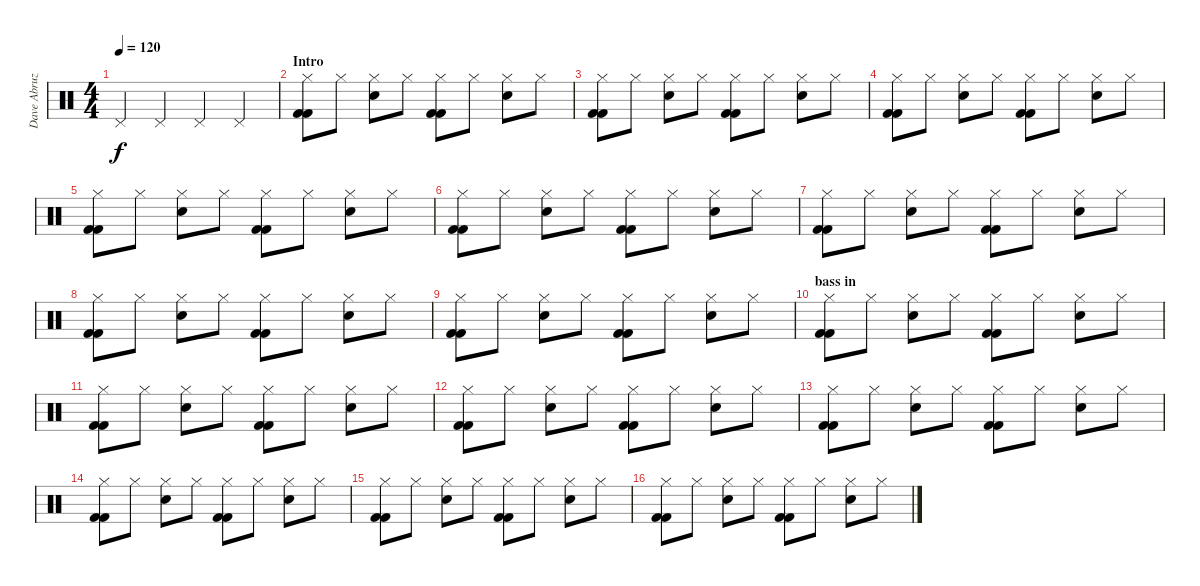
\track ("Dave Abruzzese" "Dave Abruz") {instrument percussion}
\staff {score}
\articulation defaults
\ts (4 4)
\tempo 120
\clef neutral
\ks c "Pedal Hi-Hat (hit)".4{dy f} "Pedal Hi-Hat (hit)".4 "Pedal Hi-Hat (hit)".4 "Pedal Hi-Hat (hit)".4
|
\section ("" "Intro")
("Hi-Hat (closed)" "Kick (hit) 2" "Kick (hit) 2").8 "Hi-Hat (closed)".8 ("Hi-Hat (closed)" "Electric Snare (hit)").8 "Hi-Hat (closed)".8 ("Hi-Hat (closed)" "Kick (hit) 2" "Kick (hit) 2").8 "Hi-Hat (closed)".8 ("Hi-Hat (closed)" "Electric Snare (hit)").8 "Hi-Hat (closed)".8 |
("Hi-Hat (closed)" "Kick (hit) 2" "Kick (hit) 2").8 "Hi-Hat (closed)".8 ("Hi-Hat (closed)" "Electric Snare (hit)").8 "Hi-Hat (closed)".8 ("Hi-Hat (closed)" "Kick (hit) 2" "Kick (hit) 2").8 "Hi-Hat (closed)".8 ("Hi-Hat (closed)" "Electric Snare (hit)").8 "Hi-Hat (closed)".8 |
("Hi-Hat (closed)" "Kick (hit) 2" "Kick (hit) 2").8 "Hi-Hat (closed)".8 ("Hi-Hat (closed)" "Electric Snare (hit)").8 "Hi-Hat (closed)".8 ("Hi-Hat (closed)" "Kick (hit) 2" "Kick (hit) 2").8 "Hi-Hat (closed)".8 ("Hi-Hat (closed)" "Electric Snare (hit)").8 "Hi-Hat (closed)".8 |
("Hi-Hat (closed)" "Kick (hit) 2" "Kick (hit) 2").8 "Hi-Hat (closed)".8 ("Hi-Hat (closed)" "Electric Snare (hit)").8 "Hi-Hat (closed)".8 ("Hi-Hat (closed)" "Kick (hit) 2" "Kick (hit) 2").8 "Hi-Hat (closed)".8 ("Hi-Hat (closed)" "Electric Snare (hit)").8 "Hi-Hat (closed)".8 |
("Hi-Hat (closed)" "Kick (hit) 2" "Kick (hit) 2").8 "Hi-Hat (closed)".8 ("Hi-Hat (closed)" "Electric Snare (hit)").8 "Hi-Hat (closed)".8 ("Hi-Hat (closed)" "Kick (hit) 2" "Kick (hit) 2").8 "Hi-Hat (closed)".8 ("Hi-Hat (closed)" "Electric Snare (hit)").8 "Hi-Hat (closed)".8 |
("Hi-Hat (closed)" "Kick (hit) 2" "Kick (hit) 2").8 "Hi-Hat (closed)".8 ("Hi-Hat (closed)" "Electric Snare (hit)").8 "Hi-Hat (closed)".8 ("Hi-Hat (closed)" "Kick (hit) 2" "Kick (hit) 2").8 "Hi-Hat (closed)".8 ("Hi-Hat (closed)" "Electric Snare (hit)").8 "Hi-Hat (closed)".8 |
("Hi-Hat (closed)" "Kick (hit) 2" "Kick (hit) 2").8 "Hi-Hat (closed)".8 ("Hi-Hat (closed)" "Electric Snare (hit)").8 "Hi-Hat (closed)".8 ("Hi-Hat (closed)" "Kick (hit) 2" "Kick (hit) 2").8 "Hi-Hat (closed)".8 ("Hi-Hat (closed)" "Electric Snare (hit)").8 "Hi-Hat (closed)".8 |
("Hi-Hat (closed)" "Kick (hit) 2" "Kick (hit) 2").8 "Hi-Hat (closed)".8 ("Hi-Hat (closed)" "Electric Snare (hit)").8 "Hi-Hat (closed)".8 ("Hi-Hat (closed)" "Kick (hit) 2" "Kick (hit) 2").8 "Hi-Hat (closed)".8 ("Hi-Hat (closed)" "Electric Snare (hit)").8 "Hi-Hat (closed)".8 |
\section ("" "bass in")
("Hi-Hat (closed)" "Kick (hit) 2" "Kick (hit) 2").8 "Hi-Hat (closed)".8 ("Hi-Hat (closed)" "Electric Snare (hit)").8 "Hi-Hat (closed)".8 ("Hi-Hat (closed)" "Kick (hit) 2" "Kick (hit) 2").8 "Hi-Hat (closed)".8 ("Hi-Hat (closed)" "Electric Snare (hit)").8 "Hi-Hat (closed)".8 |
("Hi-Hat (closed)" "Kick (hit) 2" "Kick (hit) 2").8 "Hi-Hat (closed)".8 ("Hi-Hat (closed)" "Electric Snare (hit)").8 "Hi-Hat (closed)".8 ("Hi-Hat (closed)" "Kick (hit) 2" "Kick (hit) 2").8 "Hi-Hat (closed)".8 ("Hi-Hat (closed)" "Electric Snare (hit)").8 "Hi-Hat (closed)".8 |
("Hi-Hat (closed)" "Kick (hit) 2" "Kick (hit) 2").8 "Hi-Hat (closed)".8 ("Hi-Hat (closed)" "Electric Snare (hit)").8 "Hi-Hat (closed)".8 ("Hi-Hat (closed)" "Kick (hit) 2" "Kick (hit) 2").8 "Hi-Hat (closed)".8 ("Hi-Hat (closed)" "Electric Snare (hit)").8 "Hi-Hat (closed)".8 |
("Hi-Hat (closed)" "Kick (hit) 2" "Kick (hit) 2").8 "Hi-Hat (closed)".8 ("Hi-Hat (closed)" "Electric Snare (hit)").8 "Hi-Hat (closed)".8 ("Hi-Hat (closed)" "Kick (hit) 2" "Kick (hit) 2").8 "Hi-Hat (closed)".8 ("Hi-Hat (closed)" "Electric Snare (hit)").8 "Hi-Hat (closed)".8 |
("Hi-Hat (closed)" "Kick (hit) 2" "Kick (hit) 2").8 "Hi-Hat (closed)".8 ("Hi-Hat (closed)" "Electric Snare (hit)").8 "Hi-Hat (closed)".8 ("Hi-Hat (closed)" "Kick (hit) 2" "Kick (hit) 2").8 "Hi-Hat (closed)".8 ("Hi-Hat (closed)" "Electric Snare (hit)").8 "Hi-Hat (closed)".8 |
("Hi-Hat (closed)" "Kick (hit) 2" "Kick (hit) 2").8 "Hi-Hat (closed)".8 ("Hi-Hat (closed)" "Electric Snare (hit)").8 "Hi-Hat (closed)".8 ("Hi-Hat (closed)" "Kick (hit) 2" "Kick (hit) 2").8 "Hi-Hat (closed)".8 ("Hi-Hat (closed)" "Electric Snare (hit)").8 "Hi-Hat (closed)".8 |
("Hi-Hat (closed)" "Kick (hit) 2" "Kick (hit) 2").8 "Hi-Hat (closed)".8 ("Hi-Hat (closed)" "Electric Snare (hit)").8 "Hi-Hat (closed)".8 ("Hi-Hat (closed)" "Kick (hit) 2" "Kick (hit) 2").8 "Hi-Hat (closed)".8 ("Hi-Hat (closed)" "Electric Snare (hit)").8 "Hi-Hat (closed)".8
